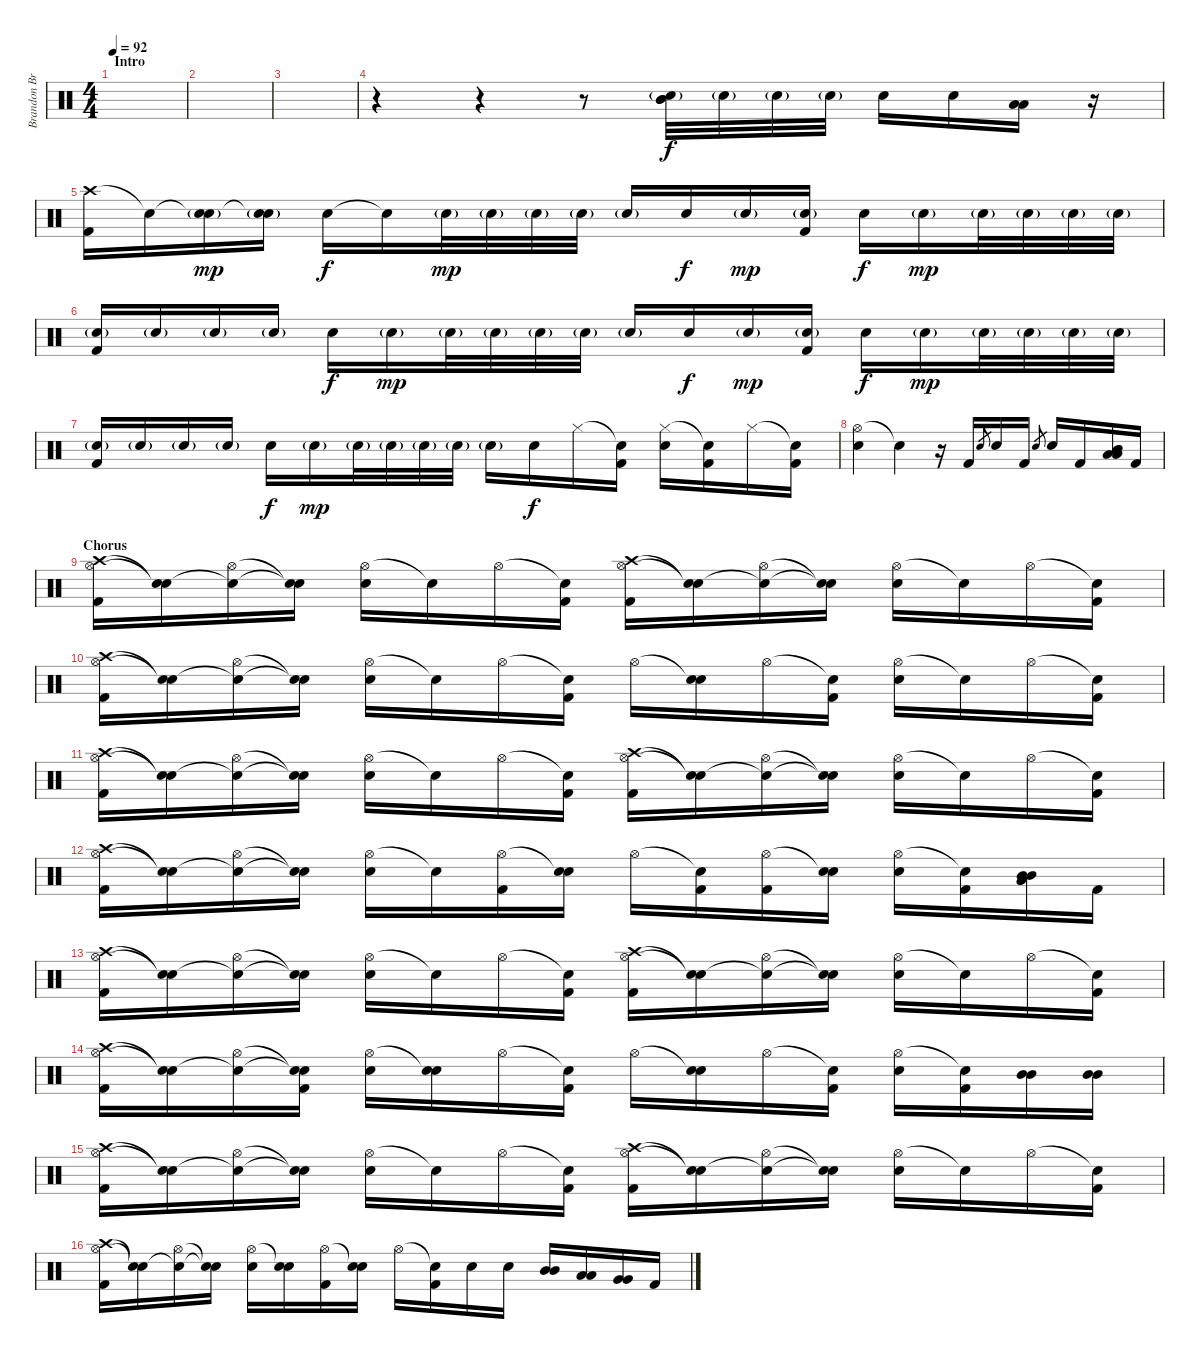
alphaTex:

\track ("Brandon Brown (Drums)" "Brandon Br") {instrument percussion}
\staff {score}
\articulation defaults
\ts (4 4)
\section ("" "Intro")
\tempo 92
\clef neutral
\ks c
|
|
|
r.4 r.4 r.8 ("Mid Tom (hit)" "Mid Tom (hit)" "Electric Snare (hit)"{g}).32 "Electric Snare (hit)"{g}.32 "Electric Snare (hit)"{g}.32 "Electric Snare (hit)"{g}.32 "Electric Snare (hit)".16{dy f} "Electric Snare (hit)".16 ("Low Tom (hit)" "Low Tom (hit)").16 r.16 |
("Crash high (hit)" "Kick (hit) 2").16 "Snare (hit)"{t}.16 ("Snare (hit)"{t} "Electric Snare (hit)"{g}).16{dy mp} ("Snare (hit)"{t} "Electric Snare (hit)"{g}).16 "Electric Snare (hit)".16{dy f} "Snare (hit)"{t}.16 "Electric Snare (hit)"{g}.32{dy mp} "Electric Snare (hit)"{g}.32 "Electric Snare (hit)"{g}.32 "Electric Snare (hit)"{g}.32 "Electric Snare (hit)"{g}.16 "Electric Snare (hit)".16{dy f} "Electric Snare (hit)"{g}.16{dy mp} ("Electric Snare (hit)"{g} "Kick (hit) 2").16 "Electric Snare (hit)".16{dy f} "Electric Snare (hit)"{g}.16{dy mp} "Electric Snare (hit)"{g}.32 "Electric Snare (hit)"{g}.32 "Electric Snare (hit)"{g}.32 "Electric Snare (hit)"{g}.32 |
("Electric Snare (hit)"{g} "Kick (hit) 2").16 "Electric Snare (hit)"{g}.16 "Electric Snare (hit)"{g}.16 "Electric Snare (hit)"{g}.16 "Electric Snare (hit)".16{dy f} "Electric Snare (hit)"{g}.16{dy mp} "Electric Snare (hit)"{g}.32 "Electric Snare (hit)"{g}.32 "Electric Snare (hit)"{g}.32 "Electric Snare (hit)"{g}.32 "Electric Snare (hit)"{g}.16 "Electric Snare (hit)".16{dy f} "Electric Snare (hit)"{g}.16{dy mp} ("Electric Snare (hit)"{g} "Kick (hit) 2").16 "Electric Snare (hit)".16{dy f} "Electric Snare (hit)"{g}.16{dy mp} "Electric Snare (hit)"{g}.32 "Electric Snare (hit)"{g}.32 "Electric Snare (hit)"{g}.32 "Electric Snare (hit)"{g}.32 |
("Electric Snare (hit)"{g} "Kick (hit) 2").16 "Electric Snare (hit)"{g}.16 "Electric Snare (hit)"{g}.16 "Electric Snare (hit)"{g}.16 "Electric Snare (hit)".16{dy f} "Electric Snare (hit)"{g}.16{dy mp} "Electric Snare (hit)"{g}.32 "Electric Snare (hit)"{g}.32 "Electric Snare (hit)"{g}.32 "Electric Snare (hit)"{g}.32 "Electric Snare (hit)"{g}.16 "Electric Snare (hit)".16{dy f} "Hi-Hat (closed)".16 ("Snare (hit)"{t} "Kick (hit) 2").16 ("Hi-Hat (closed)" "Electric Snare (hit)").16 ("Snare (hit)"{t} "Kick (hit) 2").16 "Hi-Hat (closed)".16 ("Snare (hit)"{t} "Kick (hit) 2").16 |
("Hi-Hat (open)" "Electric Snare (hit)").4 "Snare (hit)"{t}.4 r.16 "Kick (hit) 2".16 "Electric Snare (hit)".8{gr} "Electric Snare (hit)".16 "Kick (hit) 2".16 "Electric Snare (hit)".8{gr} "Electric Snare (hit)".16 "Kick (hit) 2".16 ("Mid Tom (hit)" "Mid Tom (hit)" "Low Tom (hit)" "Low Tom (hit)").16 "Kick (hit) 2".16 |
\section ("" "Chorus")
("Hi-Hat (open)" "Crash high (hit)" "Kick (hit) 2").16 ("Snare (hit)"{t} "Snare (hit)"{t}).16 ("Hi-Hat (open)" "Snare (hit)"{t}).16 ("Snare (hit)"{t} "Snare (hit)"{t}).16 ("Hi-Hat (open)" "Electric Snare (hit)").16 "Snare (hit)"{t}.16 "Hi-Hat (open)".16 ("Snare (hit)"{t} "Kick (hit) 2").16 ("Hi-Hat (open)" "Crash high (hit)" "Kick (hit) 2").16 ("Snare (hit)"{t} "Snare (hit)"{t}).16 ("Hi-Hat (open)" "Snare (hit)"{t}).16 ("Snare (hit)"{t} "Snare (hit)"{t}).16 ("Hi-Hat (open)" "Electric Snare (hit)").16 "Snare (hit)"{t}.16 "Hi-Hat (open)".16 ("Snare (hit)"{t} "Kick (hit) 2").16 |
("Hi-Hat (open)" "Crash high (hit)" "Kick (hit) 2").16 ("Snare (hit)"{t} "Snare (hit)"{t}).16 ("Hi-Hat (open)" "Snare (hit)"{t}).16 ("Snare (hit)"{t} "Snare (hit)"{t}).16 ("Hi-Hat (open)" "Electric Snare (hit)").16 "Snare (hit)"{t}.16 "Hi-Hat (open)".16 ("Snare (hit)"{t} "Kick (hit) 2").16 "Hi-Hat (open)".16 ("Snare (hit)"{t} "Electric Snare (hit)").16 "Hi-Hat (open)".16 ("Snare (hit)"{t} "Kick (hit) 2").16 ("Hi-Hat (open)" "Electric Snare (hit)").16 "Snare (hit)"{t}.16 "Hi-Hat (open)".16 ("Snare (hit)"{t} "Kick (hit) 2").16 |
("Hi-Hat (open)" "Crash high (hit)" "Kick (hit) 2").16 ("Snare (hit)"{t} "Snare (hit)"{t}).16 ("Hi-Hat (open)" "Snare (hit)"{t}).16 ("Snare (hit)"{t} "Snare (hit)"{t}).16 ("Hi-Hat (open)" "Electric Snare (hit)").16 "Snare (hit)"{t}.16 "Hi-Hat (open)".16 ("Snare (hit)"{t} "Kick (hit) 2").16 ("Hi-Hat (open)" "Crash high (hit)" "Kick (hit) 2").16 ("Snare (hit)"{t} "Snare (hit)"{t}).16 ("Hi-Hat (open)" "Snare (hit)"{t}).16 ("Snare (hit)"{t} "Snare (hit)"{t}).16 ("Hi-Hat (open)" "Electric Snare (hit)").16 "Snare (hit)"{t}.16 "Hi-Hat (open)".16 ("Snare (hit)"{t} "Kick (hit) 2").16 |
("Hi-Hat (open)" "Crash high (hit)" "Kick (hit) 2").16 ("Snare (hit)"{t} "Snare (hit)"{t}).16 ("Hi-Hat (open)" "Snare (hit)"{t}).16 ("Snare (hit)"{t} "Snare (hit)"{t}).16 ("Hi-Hat (open)" "Electric Snare (hit)").16 "Snare (hit)"{t}.16 ("Hi-Hat (open)" "Kick (hit) 2").16 ("Snare (hit)"{t} "Electric Snare (hit)").16 "Hi-Hat (open)".16 ("Snare (hit)"{t} "Kick (hit) 2").16 ("Hi-Hat (open)" "Kick (hit) 2").16 ("Snare (hit)"{t} "Electric Snare (hit)").16 ("Hi-Hat (open)" "Electric Snare (hit)").16 ("Snare (hit)"{t} "Kick (hit) 2").16 ("Mid Tom (hit)" "Mid Tom (hit)" "Low Tom (hit)" "Low Tom (hit)").16 "Kick (hit) 2".16 |
("Hi-Hat (open)" "Crash high (hit)" "Kick (hit) 2").16 ("Snare (hit)"{t} "Snare (hit)"{t}).16 ("Hi-Hat (open)" "Snare (hit)"{t}).16 ("Snare (hit)"{t} "Snare (hit)"{t}).16 ("Hi-Hat (open)" "Electric Snare (hit)").16 "Snare (hit)"{t}.16 "Hi-Hat (open)".16 ("Snare (hit)"{t} "Kick (hit) 2").16 ("Hi-Hat (open)" "Crash high (hit)" "Kick (hit) 2").16 ("Snare (hit)"{t} "Snare (hit)"{t}).16 ("Hi-Hat (open)" "Snare (hit)"{t}).16 ("Snare (hit)"{t} "Snare (hit)"{t}).16 ("Hi-Hat (open)" "Electric Snare (hit)").16 "Snare (hit)"{t}.16 "Hi-Hat (open)".16 ("Snare (hit)"{t} "Kick (hit) 2").16 |
("Hi-Hat (open)" "Crash high (hit)" "Kick (hit) 2").16 ("Snare (hit)"{t} "Snare (hit)"{t}).16 ("Hi-Hat (open)" "Snare (hit)"{t}).16 ("Snare (hit)"{t} "Snare (hit)"{t} "Kick (hit) 2").16 ("Hi-Hat (open)" "Electric Snare (hit)").16 ("Snare (hit)"{t} "Electric Snare (hit)").16 "Hi-Hat (open)".16 ("Snare (hit)"{t} "Kick (hit) 2").16 "Hi-Hat (open)".16 ("Snare (hit)"{t} "Electric Snare (hit)").16 "Hi-Hat (open)".16 ("Snare (hit)"{t} "Kick (hit) 2").16 ("Hi-Hat (open)" "Electric Snare (hit)").16 ("Snare (hit)"{t} "Kick (hit) 2").16 ("Mid Tom (hit)" "Mid Tom (hit)").16 ("Mid Tom (hit)" "Mid Tom (hit)").16 |
("Hi-Hat (open)" "Crash high (hit)" "Kick (hit) 2").16 ("Snare (hit)"{t} "Snare (hit)"{t}).16 ("Hi-Hat (open)" "Snare (hit)"{t}).16 ("Snare (hit)"{t} "Snare (hit)"{t}).16 ("Hi-Hat (open)" "Electric Snare (hit)").16 "Snare (hit)"{t}.16 "Hi-Hat (open)".16 ("Snare (hit)"{t} "Kick (hit) 2").16 ("Hi-Hat (open)" "Crash high (hit)" "Kick (hit) 2").16 ("Snare (hit)"{t} "Snare (hit)"{t}).16 ("Hi-Hat (open)" "Snare (hit)"{t}).16 ("Snare (hit)"{t} "Snare (hit)"{t}).16 ("Hi-Hat (open)" "Electric Snare (hit)").16 "Snare (hit)"{t}.16 "Hi-Hat (open)".16 ("Snare (hit)"{t} "Kick (hit) 2").16 |
("Hi-Hat (open)" "Crash high (hit)" "Kick (hit) 2").16 ("Snare (hit)"{t} "Snare (hit)"{t}).16 ("Hi-Hat (open)" "Snare (hit)"{t}).16 ("Snare (hit)"{t} "Snare (hit)"{t}).16 ("Hi-Hat (open)" "Electric Snare (hit)").16 ("Snare (hit)"{t} "Electric Snare (hit)").16 ("Hi-Hat (open)" "Kick (hit) 2").16 ("Snare (hit)"{t} "Electric Snare (hit)").16 "Hi-Hat (open)".16 ("Snare (hit)"{t} "Kick (hit) 2").16 "Electric Snare (hit)".16 "Electric Snare (hit)".16 ("Mid Tom (hit)" "Mid Tom (hit)").16 ("Low Tom (hit)" "Low Tom (hit)").16 ("Very Low Tom (hit)" "Very Low Tom (hit)").16 "Kick (hit) 2".16
